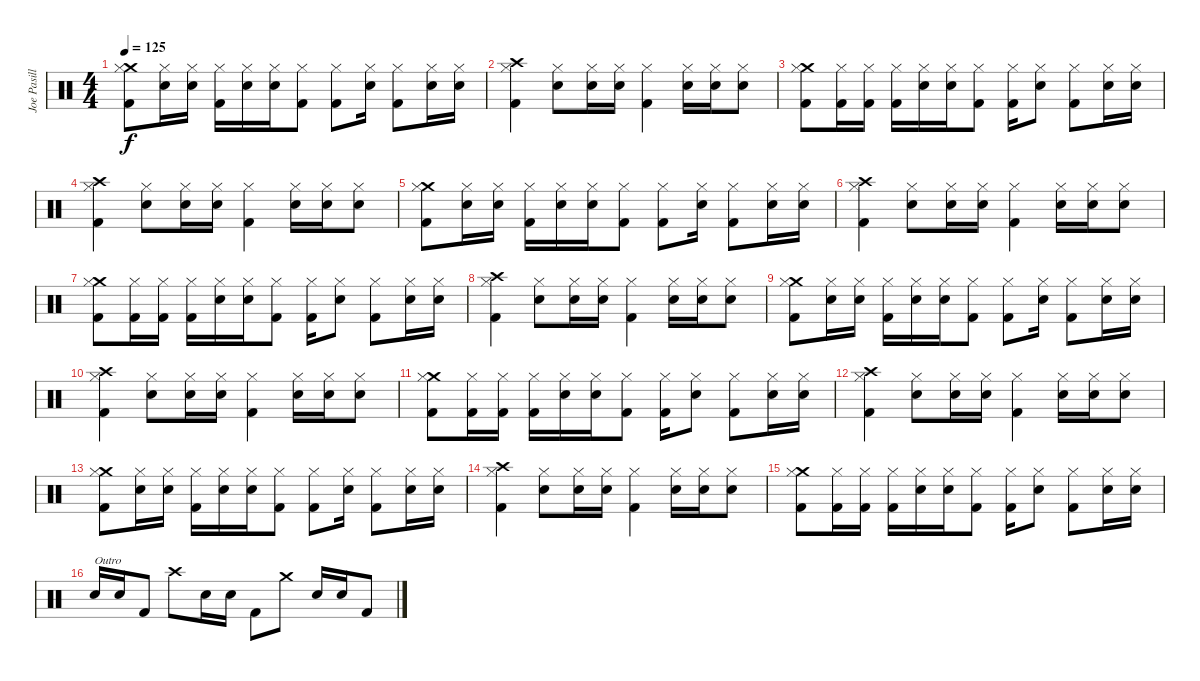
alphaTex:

\track ("Joe Pasillas" "Joe Pasill") {instrument percussion}
\staff {score}
\articulation defaults
\ts (4 4)
\tempo 125
\clef neutral
\ks c
("Crash medium (hit)" "Hi-Hat (closed)" "Kick (hit) 2").8{dy f} ("Hi-Hat (closed)" "Snare (hit) 2").16 ("Hi-Hat (closed)" "Snare (hit) 2").16 ("Hi-Hat (closed)" "Kick (hit) 2").16 ("Hi-Hat (closed)" "Snare (hit) 2").16 ("Hi-Hat (closed)" "Snare (hit) 2").16 ("Hi-Hat (closed)" "Kick (hit) 2").8 ("Hi-Hat (closed)" "Kick (hit) 2").8 ("Hi-Hat (closed)" "Snare (hit) 2").16 ("Hi-Hat (closed)" "Kick (hit) 2").8 ("Hi-Hat (closed)" "Snare (hit) 2").16 ("Hi-Hat (closed)" "Snare (hit) 2").16 |
("Crash high (hit)" "Hi-Hat (closed)" "Kick (hit) 2").4 ("Hi-Hat (closed)" "Snare (hit) 2").8 ("Hi-Hat (closed)" "Snare (hit) 2").16 ("Hi-Hat (closed)" "Snare (hit) 2").16 ("Hi-Hat (closed)" "Kick (hit) 2").4 ("Hi-Hat (closed)" "Snare (hit) 2").16 ("Hi-Hat (closed)" "Snare (hit) 2").16 ("Hi-Hat (closed)" "Snare (hit) 2").8 |
("Crash medium (hit)" "Hi-Hat (closed)" "Kick (hit) 2").8 ("Hi-Hat (closed)" "Kick (hit) 2").16 ("Hi-Hat (closed)" "Kick (hit) 2").16 ("Hi-Hat (closed)" "Kick (hit) 2").16 ("Hi-Hat (closed)" "Snare (hit) 2").16 ("Hi-Hat (closed)" "Snare (hit) 2").16 ("Hi-Hat (closed)" "Kick (hit) 2").8 ("Hi-Hat (closed)" "Kick (hit) 2").16 ("Hi-Hat (closed)" "Snare (hit) 2").8 ("Hi-Hat (closed)" "Kick (hit) 2").8 ("Hi-Hat (closed)" "Snare (hit) 2").16 ("Hi-Hat (closed)" "Snare (hit) 2").16 |
("Crash high (hit)" "Hi-Hat (closed)" "Kick (hit) 2").4 ("Hi-Hat (closed)" "Snare (hit) 2").8 ("Hi-Hat (closed)" "Snare (hit) 2").16 ("Hi-Hat (closed)" "Snare (hit) 2").16 ("Hi-Hat (closed)" "Kick (hit) 2").4 ("Hi-Hat (closed)" "Snare (hit) 2").16 ("Hi-Hat (closed)" "Snare (hit) 2").16 ("Hi-Hat (closed)" "Snare (hit) 2").8 |
("Crash medium (hit)" "Hi-Hat (closed)" "Kick (hit) 2").8 ("Hi-Hat (closed)" "Snare (hit) 2").16 ("Hi-Hat (closed)" "Snare (hit) 2").16 ("Hi-Hat (closed)" "Kick (hit) 2").16 ("Hi-Hat (closed)" "Snare (hit) 2").16 ("Hi-Hat (closed)" "Snare (hit) 2").16 ("Hi-Hat (closed)" "Kick (hit) 2").8 ("Hi-Hat (closed)" "Kick (hit) 2").8 ("Hi-Hat (closed)" "Snare (hit) 2").16 ("Hi-Hat (closed)" "Kick (hit) 2").8 ("Hi-Hat (closed)" "Snare (hit) 2").16 ("Hi-Hat (closed)" "Snare (hit) 2").16 |
("Crash high (hit)" "Hi-Hat (closed)" "Kick (hit) 2").4 ("Hi-Hat (closed)" "Snare (hit) 2").8 ("Hi-Hat (closed)" "Snare (hit) 2").16 ("Hi-Hat (closed)" "Snare (hit) 2").16 ("Hi-Hat (closed)" "Kick (hit) 2").4 ("Hi-Hat (closed)" "Snare (hit) 2").16 ("Hi-Hat (closed)" "Snare (hit) 2").16 ("Hi-Hat (closed)" "Snare (hit) 2").8 |
("Crash medium (hit)" "Hi-Hat (closed)" "Kick (hit) 2").8 ("Hi-Hat (closed)" "Kick (hit) 2").16 ("Hi-Hat (closed)" "Kick (hit) 2").16 ("Hi-Hat (closed)" "Kick (hit) 2").16 ("Hi-Hat (closed)" "Snare (hit) 2").16 ("Hi-Hat (closed)" "Snare (hit) 2").16 ("Hi-Hat (closed)" "Kick (hit) 2").8 ("Hi-Hat (closed)" "Kick (hit) 2").16 ("Hi-Hat (closed)" "Snare (hit) 2").8 ("Hi-Hat (closed)" "Kick (hit) 2").8 ("Hi-Hat (closed)" "Snare (hit) 2").16 ("Hi-Hat (closed)" "Snare (hit) 2").16 |
("Crash high (hit)" "Hi-Hat (closed)" "Kick (hit) 2").4 ("Hi-Hat (closed)" "Snare (hit) 2").8 ("Hi-Hat (closed)" "Snare (hit) 2").16 ("Hi-Hat (closed)" "Snare (hit) 2").16 ("Hi-Hat (closed)" "Kick (hit) 2").4 ("Hi-Hat (closed)" "Snare (hit) 2").16 ("Hi-Hat (closed)" "Snare (hit) 2").16 ("Hi-Hat (closed)" "Snare (hit) 2").8 |
("Crash medium (hit)" "Hi-Hat (closed)" "Kick (hit) 2").8 ("Hi-Hat (closed)" "Snare (hit) 2").16 ("Hi-Hat (closed)" "Snare (hit) 2").16 ("Hi-Hat (closed)" "Kick (hit) 2").16 ("Hi-Hat (closed)" "Snare (hit) 2").16 ("Hi-Hat (closed)" "Snare (hit) 2").16 ("Hi-Hat (closed)" "Kick (hit) 2").8 ("Hi-Hat (closed)" "Kick (hit) 2").8 ("Hi-Hat (closed)" "Snare (hit) 2").16 ("Hi-Hat (closed)" "Kick (hit) 2").8 ("Hi-Hat (closed)" "Snare (hit) 2").16 ("Hi-Hat (closed)" "Snare (hit) 2").16 |
("Crash high (hit)" "Hi-Hat (closed)" "Kick (hit) 2").4 ("Hi-Hat (closed)" "Snare (hit) 2").8 ("Hi-Hat (closed)" "Snare (hit) 2").16 ("Hi-Hat (closed)" "Snare (hit) 2").16 ("Hi-Hat (closed)" "Kick (hit) 2").4 ("Hi-Hat (closed)" "Snare (hit) 2").16 ("Hi-Hat (closed)" "Snare (hit) 2").16 ("Hi-Hat (closed)" "Snare (hit) 2").8 |
("Crash medium (hit)" "Hi-Hat (closed)" "Kick (hit) 2").8 ("Hi-Hat (closed)" "Kick (hit) 2").16 ("Hi-Hat (closed)" "Kick (hit) 2").16 ("Hi-Hat (closed)" "Kick (hit) 2").16 ("Hi-Hat (closed)" "Snare (hit) 2").16 ("Hi-Hat (closed)" "Snare (hit) 2").16 ("Hi-Hat (closed)" "Kick (hit) 2").8 ("Hi-Hat (closed)" "Kick (hit) 2").16 ("Hi-Hat (closed)" "Snare (hit) 2").8 ("Hi-Hat (closed)" "Kick (hit) 2").8 ("Hi-Hat (closed)" "Snare (hit) 2").16 ("Hi-Hat (closed)" "Snare (hit) 2").16 |
("Crash high (hit)" "Hi-Hat (closed)" "Kick (hit) 2").4 ("Hi-Hat (closed)" "Snare (hit) 2").8 ("Hi-Hat (closed)" "Snare (hit) 2").16 ("Hi-Hat (closed)" "Snare (hit) 2").16 ("Hi-Hat (closed)" "Kick (hit) 2").4 ("Hi-Hat (closed)" "Snare (hit) 2").16 ("Hi-Hat (closed)" "Snare (hit) 2").16 ("Hi-Hat (closed)" "Snare (hit) 2").8 |
("Crash medium (hit)" "Hi-Hat (closed)" "Kick (hit) 2").8 ("Hi-Hat (closed)" "Snare (hit) 2").16 ("Hi-Hat (closed)" "Snare (hit) 2").16 ("Hi-Hat (closed)" "Kick (hit) 2").16 ("Hi-Hat (closed)" "Snare (hit) 2").16 ("Hi-Hat (closed)" "Snare (hit) 2").16 ("Hi-Hat (closed)" "Kick (hit) 2").8 ("Hi-Hat (closed)" "Kick (hit) 2").8 ("Hi-Hat (closed)" "Snare (hit) 2").16 ("Hi-Hat (closed)" "Kick (hit) 2").8 ("Hi-Hat (closed)" "Snare (hit) 2").16 ("Hi-Hat (closed)" "Snare (hit) 2").16 |
("Crash high (hit)" "Hi-Hat (closed)" "Kick (hit) 2").4 ("Hi-Hat (closed)" "Snare (hit) 2").8 ("Hi-Hat (closed)" "Snare (hit) 2").16 ("Hi-Hat (closed)" "Snare (hit) 2").16 ("Hi-Hat (closed)" "Kick (hit) 2").4 ("Hi-Hat (closed)" "Snare (hit) 2").16 ("Hi-Hat (closed)" "Snare (hit) 2").16 ("Hi-Hat (closed)" "Snare (hit) 2").8 |
("Crash medium (hit)" "Hi-Hat (closed)" "Kick (hit) 2").8 ("Hi-Hat (closed)" "Kick (hit) 2").16 ("Hi-Hat (closed)" "Kick (hit) 2").16 ("Hi-Hat (closed)" "Kick (hit) 2").16 ("Hi-Hat (closed)" "Snare (hit) 2").16 ("Hi-Hat (closed)" "Snare (hit) 2").16 ("Hi-Hat (closed)" "Kick (hit) 2").8 ("Hi-Hat (closed)" "Kick (hit) 2").16 ("Hi-Hat (closed)" "Snare (hit) 2").8 ("Hi-Hat (closed)" "Kick (hit) 2").8 ("Hi-Hat (closed)" "Snare (hit) 2").16 ("Hi-Hat (closed)" "Snare (hit) 2").16 |
"Snare (hit) 2".16{txt "Outro"} "Snare (hit) 2".16 "Kick (hit) 2".8 "Crash high (hit)".8 "Snare (hit) 2".16 "Snare (hit) 2".16 "Kick (hit) 2".8 "Crash medium (hit)".8 "Snare (hit) 2".16 "Snare (hit) 2".16 "Kick (hit) 2".8
